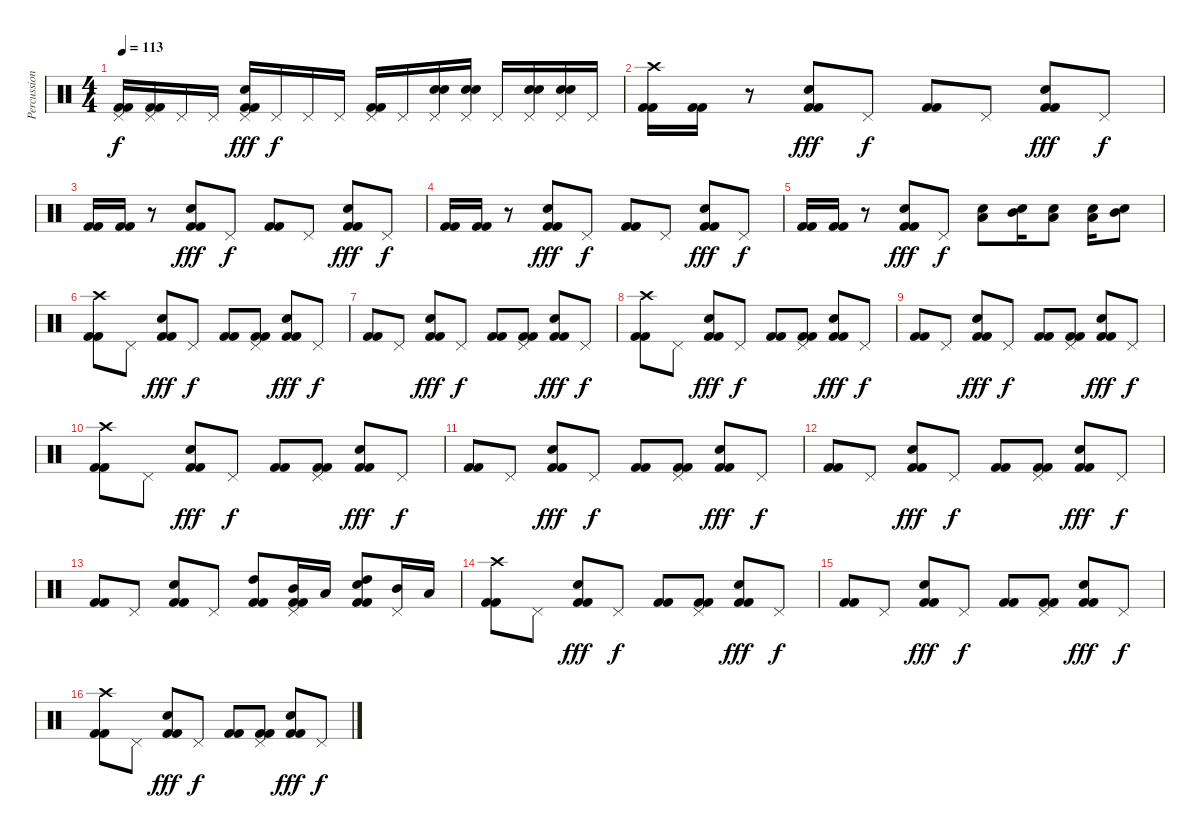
\track ("Percussion" "Percussion") {instrument percussion}
\staff {score}
\articulation defaults
\ts (4 4)
\tempo 113
\clef neutral
\ks c
("Pedal Hi-Hat (hit)" "Kick (hit) 2" "Kick (hit) 2").16{dy f} ("Pedal Hi-Hat (hit)" "Kick (hit) 2" "Kick (hit) 2").16 "Pedal Hi-Hat (hit)".16 "Pedal Hi-Hat (hit)".16 ("Pedal Hi-Hat (hit)" "Electric Snare (hit)" "Kick (hit) 2" "Kick (hit) 2").16{dy fff} "Pedal Hi-Hat (hit)".16{dy f} "Pedal Hi-Hat (hit)".16 "Pedal Hi-Hat (hit)".16 ("Pedal Hi-Hat (hit)" "Kick (hit) 2" "Kick (hit) 2").16 "Pedal Hi-Hat (hit)".16 ("Pedal Hi-Hat (hit)" "Electric Snare (hit)" "Electric Snare (hit)").16 ("Pedal Hi-Hat (hit)" "Electric Snare (hit)" "Electric Snare (hit)").16 "Pedal Hi-Hat (hit)".16 ("Pedal Hi-Hat (hit)" "Electric Snare (hit)" "Electric Snare (hit)").16 ("Pedal Hi-Hat (hit)" "Electric Snare (hit)" "Electric Snare (hit)").16 "Pedal Hi-Hat (hit)".16 |
("Crash high (hit)" "Kick (hit) 2" "Kick (hit) 2").16 ("Kick (hit) 2" "Kick (hit) 2").16 r.8 ("Electric Snare (hit)" "Kick (hit) 2" "Kick (hit) 2").8{dy fff} "Pedal Hi-Hat (hit)".8{dy f} ("Kick (hit) 2" "Kick (hit) 2").8 "Pedal Hi-Hat (hit)".8 ("Electric Snare (hit)" "Kick (hit) 2" "Kick (hit) 2").8{dy fff} "Pedal Hi-Hat (hit)".8{dy f} |
("Kick (hit) 2" "Kick (hit) 2").16 ("Kick (hit) 2" "Kick (hit) 2").16 r.8 ("Electric Snare (hit)" "Kick (hit) 2" "Kick (hit) 2").8{dy fff} "Pedal Hi-Hat (hit)".8{dy f} ("Kick (hit) 2" "Kick (hit) 2").8 "Pedal Hi-Hat (hit)".8 ("Electric Snare (hit)" "Kick (hit) 2" "Kick (hit) 2").8{dy fff} "Pedal Hi-Hat (hit)".8{dy f} |
("Kick (hit) 2" "Kick (hit) 2").16 ("Kick (hit) 2" "Kick (hit) 2").16 r.8 ("Electric Snare (hit)" "Kick (hit) 2" "Kick (hit) 2").8{dy fff} "Pedal Hi-Hat (hit)".8{dy f} ("Kick (hit) 2" "Kick (hit) 2").8 "Pedal Hi-Hat (hit)".8 ("Electric Snare (hit)" "Kick (hit) 2" "Kick (hit) 2").8{dy fff} "Pedal Hi-Hat (hit)".8{dy f} |
("Kick (hit) 2" "Kick (hit) 2").16 ("Kick (hit) 2" "Kick (hit) 2").16 r.8 ("Electric Snare (hit)" "Kick (hit) 2" "Kick (hit) 2").8{dy fff} "Pedal Hi-Hat (hit)".8{dy f} ("Electric Snare (hit)" "Low Tom (hit)").8 ("Electric Snare (hit)" "Mid Tom (hit)").16 ("Electric Snare (hit)" "Low Tom (hit)").8 ("Electric Snare (hit)" "Low Tom (hit)").16 ("Electric Snare (hit)" "Mid Tom (hit)").8 |
("Crash high (hit)" "Kick (hit) 2" "Kick (hit) 2").8 "Pedal Hi-Hat (hit)".8 ("Electric Snare (hit)" "Kick (hit) 2" "Kick (hit) 2").8{dy fff} "Pedal Hi-Hat (hit)".8{dy f} ("Kick (hit) 2" "Kick (hit) 2").8 ("Pedal Hi-Hat (hit)" "Kick (hit) 2" "Kick (hit) 2").8 ("Electric Snare (hit)" "Kick (hit) 2" "Kick (hit) 2").8{dy fff} "Pedal Hi-Hat (hit)".8{dy f} |
("Kick (hit) 2" "Kick (hit) 2").8 "Pedal Hi-Hat (hit)".8 ("Electric Snare (hit)" "Kick (hit) 2" "Kick (hit) 2").8{dy fff} "Pedal Hi-Hat (hit)".8{dy f} ("Kick (hit) 2" "Kick (hit) 2").8 ("Pedal Hi-Hat (hit)" "Kick (hit) 2" "Kick (hit) 2").8 ("Electric Snare (hit)" "Kick (hit) 2" "Kick (hit) 2").8{dy fff} "Pedal Hi-Hat (hit)".8{dy f} |
("Crash high (hit)" "Kick (hit) 2" "Kick (hit) 2").8 "Pedal Hi-Hat (hit)".8 ("Electric Snare (hit)" "Kick (hit) 2" "Kick (hit) 2").8{dy fff} "Pedal Hi-Hat (hit)".8{dy f} ("Kick (hit) 2" "Kick (hit) 2").8 ("Pedal Hi-Hat (hit)" "Kick (hit) 2" "Kick (hit) 2").8 ("Electric Snare (hit)" "Kick (hit) 2" "Kick (hit) 2").8{dy fff} "Pedal Hi-Hat (hit)".8{dy f} |
("Kick (hit) 2" "Kick (hit) 2").8 "Pedal Hi-Hat (hit)".8 ("Electric Snare (hit)" "Kick (hit) 2" "Kick (hit) 2").8{dy fff} "Pedal Hi-Hat (hit)".8{dy f} ("Kick (hit) 2" "Kick (hit) 2").8 ("Pedal Hi-Hat (hit)" "Kick (hit) 2" "Kick (hit) 2").8 ("Electric Snare (hit)" "Kick (hit) 2" "Kick (hit) 2").8{dy fff} "Pedal Hi-Hat (hit)".8{dy f} |
("Crash high (hit)" "Kick (hit) 2" "Kick (hit) 2").8 "Pedal Hi-Hat (hit)".8 ("Electric Snare (hit)" "Kick (hit) 2" "Kick (hit) 2").8{dy fff} "Pedal Hi-Hat (hit)".8{dy f} ("Kick (hit) 2" "Kick (hit) 2").8 ("Pedal Hi-Hat (hit)" "Kick (hit) 2" "Kick (hit) 2").8 ("Electric Snare (hit)" "Kick (hit) 2" "Kick (hit) 2").8{dy fff} "Pedal Hi-Hat (hit)".8{dy f} |
("Kick (hit) 2" "Kick (hit) 2").8 "Pedal Hi-Hat (hit)".8 ("Electric Snare (hit)" "Kick (hit) 2" "Kick (hit) 2").8{dy fff} "Pedal Hi-Hat (hit)".8{dy f} ("Kick (hit) 2" "Kick (hit) 2").8 ("Pedal Hi-Hat (hit)" "Kick (hit) 2" "Kick (hit) 2").8 ("Electric Snare (hit)" "Kick (hit) 2" "Kick (hit) 2").8{dy fff} "Pedal Hi-Hat (hit)".8{dy f} |
("Kick (hit) 2" "Kick (hit) 2").8 "Pedal Hi-Hat (hit)".8 ("Electric Snare (hit)" "Kick (hit) 2" "Kick (hit) 2").8{dy fff} "Pedal Hi-Hat (hit)".8{dy f} ("Kick (hit) 2" "Kick (hit) 2").8 ("Pedal Hi-Hat (hit)" "Kick (hit) 2" "Kick (hit) 2").8 ("Electric Snare (hit)" "Kick (hit) 2" "Kick (hit) 2").8{dy fff} "Pedal Hi-Hat (hit)".8{dy f} |
("Kick (hit) 2" "Kick (hit) 2").8 "Pedal Hi-Hat (hit)".8 ("Electric Snare (hit)" "Kick (hit) 2" "Kick (hit) 2").8 "Pedal Hi-Hat (hit)".8 ("High Tom (hit)" "Kick (hit) 2" "Kick (hit) 2").8 ("Pedal Hi-Hat (hit)" "Mid Tom (hit)" "Kick (hit) 2" "Kick (hit) 2").16 "Low Tom (hit)".16 ("High Tom (hit)" "Electric Snare (hit)" "Kick (hit) 2" "Kick (hit) 2").8 ("Pedal Hi-Hat (hit)" "Mid Tom (hit)").16 "Low Tom (hit)".16 |
("Crash high (hit)" "Kick (hit) 2" "Kick (hit) 2").8 "Pedal Hi-Hat (hit)".8 ("Electric Snare (hit)" "Kick (hit) 2" "Kick (hit) 2").8{dy fff} "Pedal Hi-Hat (hit)".8{dy f} ("Kick (hit) 2" "Kick (hit) 2").8 ("Pedal Hi-Hat (hit)" "Kick (hit) 2" "Kick (hit) 2").8 ("Electric Snare (hit)" "Kick (hit) 2" "Kick (hit) 2").8{dy fff} "Pedal Hi-Hat (hit)".8{dy f} |
("Kick (hit) 2" "Kick (hit) 2").8 "Pedal Hi-Hat (hit)".8 ("Electric Snare (hit)" "Kick (hit) 2" "Kick (hit) 2").8{dy fff} "Pedal Hi-Hat (hit)".8{dy f} ("Kick (hit) 2" "Kick (hit) 2").8 ("Pedal Hi-Hat (hit)" "Kick (hit) 2" "Kick (hit) 2").8 ("Electric Snare (hit)" "Kick (hit) 2" "Kick (hit) 2").8{dy fff} "Pedal Hi-Hat (hit)".8{dy f} |
("Crash high (hit)" "Kick (hit) 2" "Kick (hit) 2").8 "Pedal Hi-Hat (hit)".8 ("Electric Snare (hit)" "Kick (hit) 2" "Kick (hit) 2").8{dy fff} "Pedal Hi-Hat (hit)".8{dy f} ("Kick (hit) 2" "Kick (hit) 2").8 ("Pedal Hi-Hat (hit)" "Kick (hit) 2" "Kick (hit) 2").8 ("Electric Snare (hit)" "Kick (hit) 2" "Kick (hit) 2").8{dy fff} "Pedal Hi-Hat (hit)".8{dy f}
